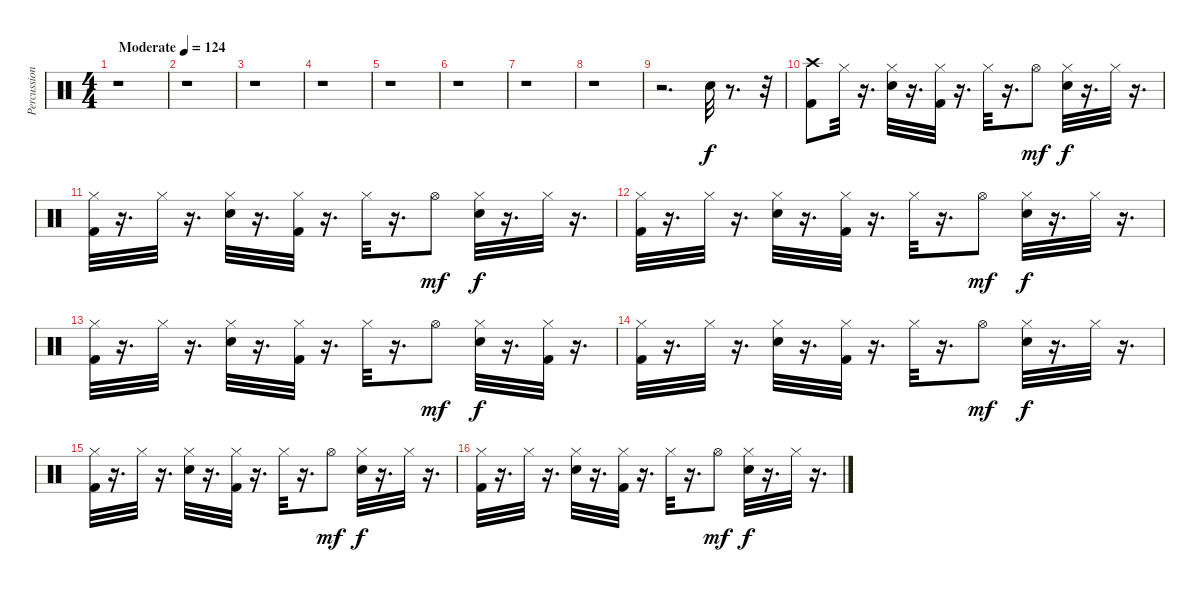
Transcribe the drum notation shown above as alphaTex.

\track ("Percussions" "Percussion") {instrument percussion}
\staff {score}
\articulation defaults
\ts (4 4)
\tempo (124 "Moderate")
\clef neutral
\ks c
r.1{dy f} |
r.1 |
r.1 |
r.1 |
r.1 |
r.1 |
r.1 |
r.1 |
r.2{d} "Snare (hit) 2".32 r.8{d} r.32 |
("Kick (hit) 2" "Crash high (hit)").8 "Hi-Hat (closed)".32 r.16{d} ("Snare (hit) 2" "Hi-Hat (closed)").32 r.16{d} ("Kick (hit) 2" "Hi-Hat (closed)").32 r.16{d} "Hi-Hat (closed)".32 r.16{d} "Hi-Hat (open)".8{dy mf} ("Snare (hit) 2" "Hi-Hat (closed)").32{dy f} r.16{d} "Hi-Hat (closed)".32 r.16{d} |
("Kick (hit) 2" "Hi-Hat (closed)").32 r.16{d} "Hi-Hat (closed)".32 r.16{d} ("Snare (hit) 2" "Hi-Hat (closed)").32 r.16{d} ("Kick (hit) 2" "Hi-Hat (closed)").32 r.16{d} "Hi-Hat (closed)".32 r.16{d} "Hi-Hat (open)".8{dy mf} ("Snare (hit) 2" "Hi-Hat (closed)").32{dy f} r.16{d} "Hi-Hat (closed)".32 r.16{d} |
("Kick (hit) 2" "Hi-Hat (closed)").32 r.16{d} "Hi-Hat (closed)".32 r.16{d} ("Snare (hit) 2" "Hi-Hat (closed)").32 r.16{d} ("Kick (hit) 2" "Hi-Hat (closed)").32 r.16{d} "Hi-Hat (closed)".32 r.16{d} "Hi-Hat (open)".8{dy mf} ("Snare (hit) 2" "Hi-Hat (closed)").32{dy f} r.16{d} "Hi-Hat (closed)".32 r.16{d} |
("Kick (hit) 2" "Hi-Hat (closed)").32 r.16{d} "Hi-Hat (closed)".32 r.16{d} ("Snare (hit) 2" "Hi-Hat (closed)").32 r.16{d} ("Kick (hit) 2" "Hi-Hat (closed)").32 r.16{d} "Hi-Hat (closed)".32 r.16{d} "Hi-Hat (open)".8{dy mf} ("Snare (hit) 2" "Hi-Hat (closed)").32{dy f} r.16{d} ("Kick (hit) 2" "Hi-Hat (closed)").32 r.16{d} |
("Kick (hit) 2" "Hi-Hat (closed)").32 r.16{d} "Hi-Hat (closed)".32 r.16{d} ("Snare (hit) 2" "Hi-Hat (closed)").32 r.16{d} ("Kick (hit) 2" "Hi-Hat (closed)").32 r.16{d} "Hi-Hat (closed)".32 r.16{d} "Hi-Hat (open)".8{dy mf} ("Snare (hit) 2" "Hi-Hat (closed)").32{dy f} r.16{d} "Hi-Hat (closed)".32 r.16{d} |
("Kick (hit) 2" "Hi-Hat (closed)").32 r.16{d} "Hi-Hat (closed)".32 r.16{d} ("Snare (hit) 2" "Hi-Hat (closed)").32 r.16{d} ("Kick (hit) 2" "Hi-Hat (closed)").32 r.16{d} "Hi-Hat (closed)".32 r.16{d} "Hi-Hat (open)".8{dy mf} ("Snare (hit) 2" "Hi-Hat (closed)").32{dy f} r.16{d} "Hi-Hat (closed)".32 r.16{d} |
("Kick (hit) 2" "Hi-Hat (closed)").32 r.16{d} "Hi-Hat (closed)".32 r.16{d} ("Snare (hit) 2" "Hi-Hat (closed)").32 r.16{d} ("Kick (hit) 2" "Hi-Hat (closed)").32 r.16{d} "Hi-Hat (closed)".32 r.16{d} "Hi-Hat (open)".8{dy mf} ("Snare (hit) 2" "Hi-Hat (closed)").32{dy f} r.16{d} "Hi-Hat (closed)".32 r.16{d}
